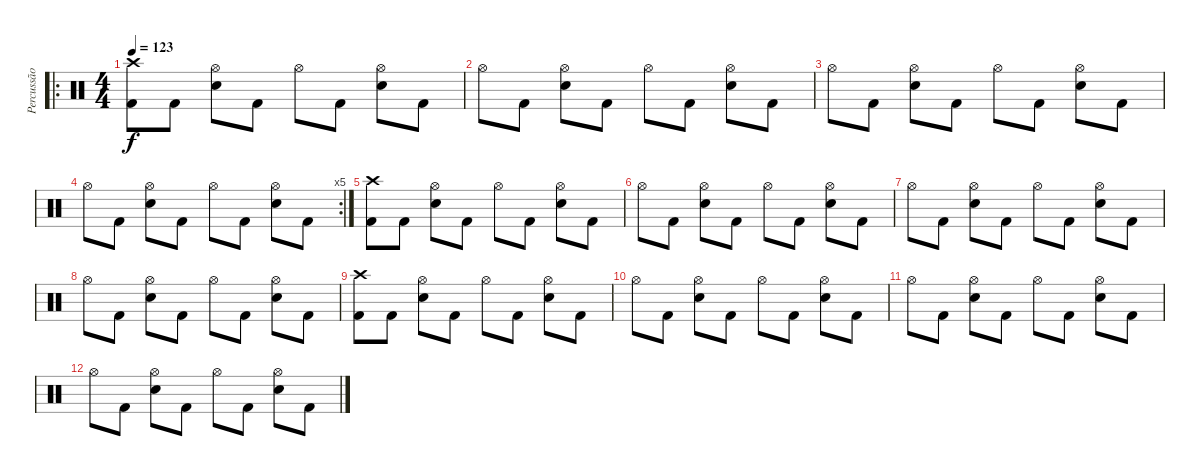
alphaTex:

\track ("Percussão" "Percussão") {instrument percussion}
\staff {score}
\articulation defaults
\ro
\ts (4 4)
\tempo 123
\clef neutral
\ks c
("Crash high (hit)" "Kick (hit) 2").8{dy f} "Kick (hit) 2".8 ("Hi-Hat (open)" "Snare (hit) 2").8 "Kick (hit) 2".8 "Hi-Hat (open)".8 "Kick (hit) 2".8 ("Hi-Hat (open)" "Snare (hit) 2").8 "Kick (hit) 2".8 |
"Hi-Hat (open)".8 "Kick (hit) 2".8 ("Hi-Hat (open)" "Snare (hit) 2").8 "Kick (hit) 2".8 "Hi-Hat (open)".8 "Kick (hit) 2".8 ("Hi-Hat (open)" "Snare (hit) 2").8 "Kick (hit) 2".8 |
"Hi-Hat (open)".8 "Kick (hit) 2".8 ("Hi-Hat (open)" "Snare (hit) 2").8 "Kick (hit) 2".8 "Hi-Hat (open)".8 "Kick (hit) 2".8 ("Hi-Hat (open)" "Snare (hit) 2").8 "Kick (hit) 2".8 |
\rc 5 "Hi-Hat (open)".8 "Kick (hit) 2".8
("Hi-Hat (open)" "Snare (hit) 2").8 "Kick (hit) 2".8 "Hi-Hat (open)".8 "Kick (hit) 2".8 ("Hi-Hat (open)" "Snare (hit) 2").8 "Kick (hit) 2".8 |
("Crash high (hit)" "Kick (hit) 2").8 "Kick (hit) 2".8 ("Hi-Hat (open)" "Snare (hit) 2").8 "Kick (hit) 2".8 "Hi-Hat (open)".8 "Kick (hit) 2".8 ("Hi-Hat (open)" "Snare (hit) 2").8 "Kick (hit) 2".8 |
"Hi-Hat (open)".8 "Kick (hit) 2".8 ("Hi-Hat (open)" "Snare (hit) 2").8 "Kick (hit) 2".8 "Hi-Hat (open)".8 "Kick (hit) 2".8 ("Hi-Hat (open)" "Snare (hit) 2").8 "Kick (hit) 2".8 |
"Hi-Hat (open)".8 "Kick (hit) 2".8 ("Hi-Hat (open)" "Snare (hit) 2").8 "Kick (hit) 2".8 "Hi-Hat (open)".8 "Kick (hit) 2".8 ("Hi-Hat (open)" "Snare (hit) 2").8 "Kick (hit) 2".8 |
"Hi-Hat (open)".8 "Kick (hit) 2".8 ("Hi-Hat (open)" "Snare (hit) 2").8 "Kick (hit) 2".8 "Hi-Hat (open)".8 "Kick (hit) 2".8 ("Hi-Hat (open)" "Snare (hit) 2").8 "Kick (hit) 2".8 |
("Crash high (hit)" "Kick (hit) 2").8 "Kick (hit) 2".8 ("Hi-Hat (open)" "Snare (hit) 2").8 "Kick (hit) 2".8 "Hi-Hat (open)".8 "Kick (hit) 2".8 ("Hi-Hat (open)" "Snare (hit) 2").8 "Kick (hit) 2".8 |
"Hi-Hat (open)".8 "Kick (hit) 2".8 ("Hi-Hat (open)" "Snare (hit) 2").8 "Kick (hit) 2".8 "Hi-Hat (open)".8 "Kick (hit) 2".8 ("Hi-Hat (open)" "Snare (hit) 2").8 "Kick (hit) 2".8 |
"Hi-Hat (open)".8 "Kick (hit) 2".8 ("Hi-Hat (open)" "Snare (hit) 2").8 "Kick (hit) 2".8 "Hi-Hat (open)".8 "Kick (hit) 2".8 ("Hi-Hat (open)" "Snare (hit) 2").8 "Kick (hit) 2".8 |
"Hi-Hat (open)".8 "Kick (hit) 2".8 ("Hi-Hat (open)" "Snare (hit) 2").8 "Kick (hit) 2".8 "Hi-Hat (open)".8 "Kick (hit) 2".8 ("Hi-Hat (open)" "Snare (hit) 2").8 "Kick (hit) 2".8
